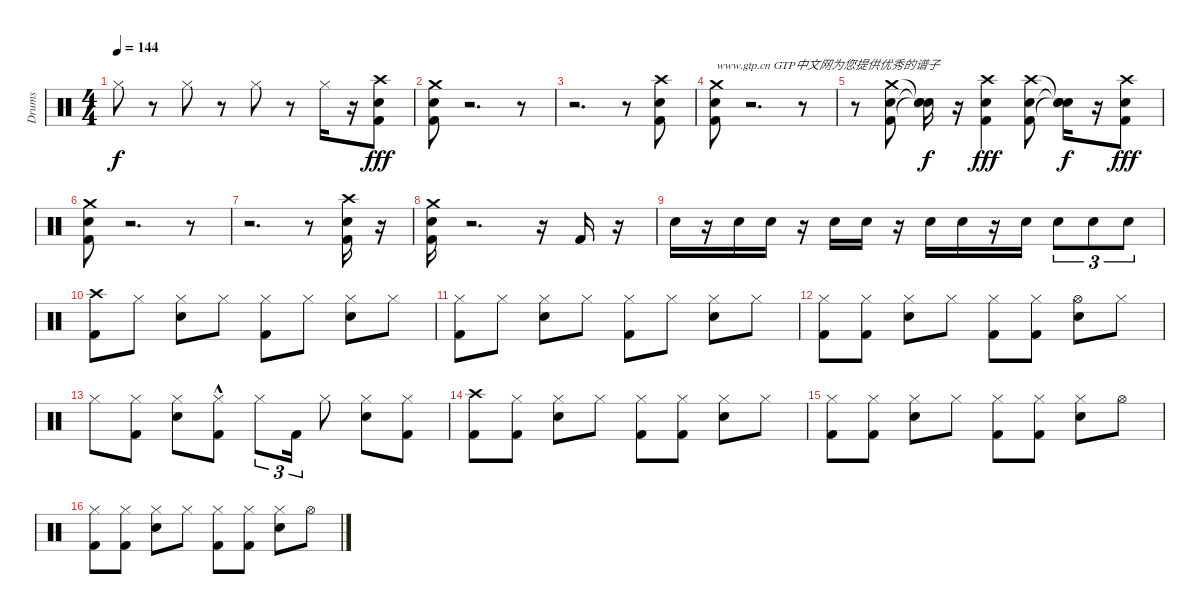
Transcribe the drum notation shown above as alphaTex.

\track ("Drums" "Drums") {instrument percussion}
\staff {score}
\articulation defaults
\ts (4 4)
\tempo 144
\clef neutral
\ks c "Hi-Hat (closed)".8{dy f}
r.8 "Hi-Hat (closed)".8 r.8 "Hi-Hat (closed)".8 r.8 "Hi-Hat (closed)".16 r.16 ("Crash high (hit)" "Snare (hit) 2" "Kick (hit) 2").8{dy fff} |
("Kick (hit) 2" "Snare (hit) 2" "Crash medium (hit)").8 r.2{d} r.8 |
r.2{d} r.8 ("Kick (hit) 2" "Snare (hit) 2" "Crash high (hit)").8 |
("Kick (hit) 2" "Snare (hit) 2" "Crash medium (hit)").8{txt "www.gtp.cn GTP中文网为您提供优秀的谱子"} r.2{d} r.8 |
r.8 ("Kick (hit) 2" "Snare (hit) 2" "Crash medium (hit)").8 ("Snare (hit)"{t} "Snare (hit)"{t} "Snare (hit)"{t}).16{dy f} r.16 ("Kick (hit) 2" "Snare (hit) 2" "Crash high (hit)").4{dy fff} ("Kick (hit) 2" "Snare (hit) 2" "Crash high (hit)").8 ("Snare (hit)"{t} "Snare (hit)"{t} "Snare (hit)"{t}).16{dy f} r.16 ("Kick (hit) 2" "Snare (hit) 2" "Crash high (hit)").8{dy fff} |
("Kick (hit) 2" "Snare (hit) 2" "Crash medium (hit)").8 r.2{d} r.8 |
r.2{d} r.8 ("Kick (hit) 2" "Snare (hit) 2" "Crash high (hit)").16 r.16 |
("Kick (hit) 2" "Snare (hit) 2" "Crash medium (hit)").16 r.2{d} r.16 "Kick (hit) 2".16 r.16 |
"Snare (hit) 2".16 r.16 "Snare (hit) 2".16 "Snare (hit) 2".16 r.16 "Snare (hit) 2".16 "Snare (hit) 2".16 r.16 "Snare (hit) 2".16 "Snare (hit) 2".16 r.16 "Snare (hit) 2".16 "Snare (hit) 2".8{tu (3 2)} "Snare (hit) 2".8{tu (3 2)} "Snare (hit) 2".8{tu (3 2)} |
("Kick (hit) 2" "Crash high (hit)").8 "Hi-Hat (closed)".8 ("Snare (hit) 2" "Hi-Hat (closed)").8 "Hi-Hat (closed)".8 ("Kick (hit) 2" "Hi-Hat (closed)").8 "Hi-Hat (closed)".8 ("Snare (hit) 2" "Hi-Hat (closed)").8 "Hi-Hat (closed)".8 |
("Kick (hit) 2" "Hi-Hat (closed)").8 "Hi-Hat (closed)".8 ("Snare (hit) 2" "Hi-Hat (closed)").8 "Hi-Hat (closed)".8 ("Kick (hit) 2" "Hi-Hat (closed)").8 "Hi-Hat (closed)".8 ("Snare (hit) 2" "Hi-Hat (closed)").8 "Hi-Hat (closed)".8 |
("Kick (hit) 2" "Hi-Hat (closed)").8 ("Kick (hit) 2" "Hi-Hat (closed)").8 ("Snare (hit) 2" "Hi-Hat (closed)").8 "Hi-Hat (closed)".8 ("Kick (hit) 2" "Hi-Hat (closed)").8 ("Kick (hit) 2" "Hi-Hat (closed)").8 ("Snare (hit) 2" "Hi-Hat (open)").8 "Hi-Hat (closed)".8 |
"Hi-Hat (closed)".8 ("Kick (hit) 2" "Hi-Hat (closed)").8 ("Snare (hit) 2" "Hi-Hat (closed)").8 ("Hi-Hat (closed)" "Kick (hit) 2"{hac}).8 "Hi-Hat (closed)".8{tu (3 2)} "Kick (hit) 2".16{tu (3 2)} "Hi-Hat (closed)".8 ("Snare (hit) 2" "Hi-Hat (closed)").8 ("Hi-Hat (closed)" "Kick (hit) 2").8 |
("Kick (hit) 2" "Crash high (hit)").8 ("Kick (hit) 2" "Hi-Hat (closed)").8 ("Snare (hit) 2" "Hi-Hat (closed)").8 "Hi-Hat (closed)".8 ("Kick (hit) 2" "Hi-Hat (closed)").8 ("Kick (hit) 2" "Hi-Hat (closed)").8 ("Snare (hit) 2" "Hi-Hat (closed)").8 "Hi-Hat (closed)".8 |
("Kick (hit) 2" "Hi-Hat (closed)").8 ("Kick (hit) 2" "Hi-Hat (closed)").8 ("Snare (hit) 2" "Hi-Hat (closed)").8 "Hi-Hat (closed)".8 ("Kick (hit) 2" "Hi-Hat (closed)").8 ("Kick (hit) 2" "Hi-Hat (closed)").8 ("Snare (hit) 2" "Hi-Hat (closed)").8 "Hi-Hat (open)".8 |
("Hi-Hat (closed)" "Kick (hit) 2").8 ("Kick (hit) 2" "Hi-Hat (closed)").8 ("Snare (hit) 2" "Hi-Hat (closed)").8 "Hi-Hat (closed)".8 ("Kick (hit) 2" "Hi-Hat (closed)").8 ("Kick (hit) 2" "Hi-Hat (closed)").8 ("Snare (hit) 2" "Hi-Hat (closed)").8 "Hi-Hat (open)".8
